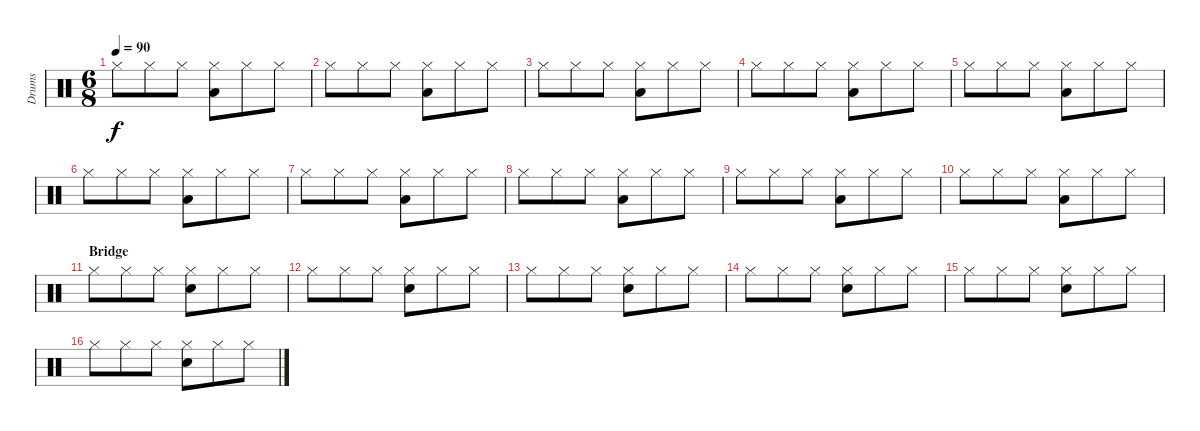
\track ("Drums" "Drums") {instrument percussion}
\staff {score}
\articulation defaults
\ts (6 8)
\tempo 90
\clef neutral
\ks c "Hi-Hat (closed)".8{dy f} "Hi-Hat (closed)".8 "Hi-Hat (closed)".8
("Hi-Hat (closed)" "Low Floor Tom (hit)").8 "Hi-Hat (closed)".8 "Hi-Hat (closed)".8 |
"Hi-Hat (closed)".8 "Hi-Hat (closed)".8 "Hi-Hat (closed)".8 ("Hi-Hat (closed)" "Low Floor Tom (hit)").8 "Hi-Hat (closed)".8 "Hi-Hat (closed)".8 |
"Hi-Hat (closed)".8 "Hi-Hat (closed)".8 "Hi-Hat (closed)".8 ("Hi-Hat (closed)" "Low Floor Tom (hit)").8 "Hi-Hat (closed)".8 "Hi-Hat (closed)".8 |
"Hi-Hat (closed)".8 "Hi-Hat (closed)".8 "Hi-Hat (closed)".8 ("Hi-Hat (closed)" "Low Floor Tom (hit)").8 "Hi-Hat (closed)".8 "Hi-Hat (closed)".8 |
"Hi-Hat (closed)".8 "Hi-Hat (closed)".8 "Hi-Hat (closed)".8 ("Hi-Hat (closed)" "Low Floor Tom (hit)").8 "Hi-Hat (closed)".8 "Hi-Hat (closed)".8 |
"Hi-Hat (closed)".8 "Hi-Hat (closed)".8 "Hi-Hat (closed)".8 ("Hi-Hat (closed)" "Low Floor Tom (hit)").8 "Hi-Hat (closed)".8 "Hi-Hat (closed)".8 |
"Hi-Hat (closed)".8 "Hi-Hat (closed)".8 "Hi-Hat (closed)".8 ("Hi-Hat (closed)" "Low Floor Tom (hit)").8 "Hi-Hat (closed)".8 "Hi-Hat (closed)".8 |
"Hi-Hat (closed)".8 "Hi-Hat (closed)".8 "Hi-Hat (closed)".8 ("Hi-Hat (closed)" "Low Floor Tom (hit)").8 "Hi-Hat (closed)".8 "Hi-Hat (closed)".8 |
"Hi-Hat (closed)".8 "Hi-Hat (closed)".8 "Hi-Hat (closed)".8 ("Hi-Hat (closed)" "Low Floor Tom (hit)").8 "Hi-Hat (closed)".8 "Hi-Hat (closed)".8 |
"Hi-Hat (closed)".8 "Hi-Hat (closed)".8 "Hi-Hat (closed)".8 ("Hi-Hat (closed)" "Low Floor Tom (hit)").8 "Hi-Hat (closed)".8 "Hi-Hat (closed)".8 |
\section ("" "Bridge")
"Hi-Hat (closed)".8 "Hi-Hat (closed)".8 "Hi-Hat (closed)".8 ("Hi-Hat (closed)" "Electric Snare (hit)").8 "Hi-Hat (closed)".8 "Hi-Hat (closed)".8 |
"Hi-Hat (closed)".8 "Hi-Hat (closed)".8 "Hi-Hat (closed)".8 ("Hi-Hat (closed)" "Electric Snare (hit)").8 "Hi-Hat (closed)".8 "Hi-Hat (closed)".8 |
"Hi-Hat (closed)".8 "Hi-Hat (closed)".8 "Hi-Hat (closed)".8 ("Hi-Hat (closed)" "Electric Snare (hit)").8 "Hi-Hat (closed)".8 "Hi-Hat (closed)".8 |
"Hi-Hat (closed)".8 "Hi-Hat (closed)".8 "Hi-Hat (closed)".8 ("Hi-Hat (closed)" "Electric Snare (hit)").8 "Hi-Hat (closed)".8 "Hi-Hat (closed)".8 |
"Hi-Hat (closed)".8 "Hi-Hat (closed)".8 "Hi-Hat (closed)".8 ("Hi-Hat (closed)" "Electric Snare (hit)").8 "Hi-Hat (closed)".8 "Hi-Hat (closed)".8 |
"Hi-Hat (closed)".8 "Hi-Hat (closed)".8 "Hi-Hat (closed)".8 ("Hi-Hat (closed)" "Electric Snare (hit)").8 "Hi-Hat (closed)".8 "Hi-Hat (closed)".8
